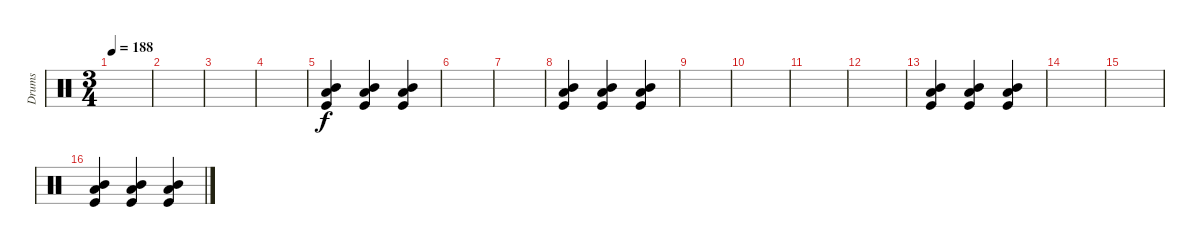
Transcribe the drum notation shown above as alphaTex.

\track ("Drums" "Drums") {instrument percussion}
\staff {score}
\articulation defaults
\ts (3 4)
\tempo 188
\clef neutral
\ks c
|
|
|
|
("Low Tom (hit)" "Mid Tom (hit)" "Kick (hit)").4 ("Low Tom (hit)" "Mid Tom (hit)" "Kick (hit)").4 ("Low Tom (hit)" "Mid Tom (hit)" "Kick (hit)").4 |
|
|
("Low Tom (hit)" "Mid Tom (hit)" "Kick (hit)").4 ("Low Tom (hit)" "Mid Tom (hit)" "Kick (hit)").4 ("Low Tom (hit)" "Mid Tom (hit)" "Kick (hit)").4 |
|
|
|
|
("Low Tom (hit)" "Mid Tom (hit)" "Kick (hit)").4 ("Low Tom (hit)" "Mid Tom (hit)" "Kick (hit)").4 ("Low Tom (hit)" "Mid Tom (hit)" "Kick (hit)").4 |
|
|
("Low Tom (hit)" "Mid Tom (hit)" "Kick (hit)").4 ("Low Tom (hit)" "Mid Tom (hit)" "Kick (hit)").4 ("Low Tom (hit)" "Mid Tom (hit)" "Kick (hit)").4
